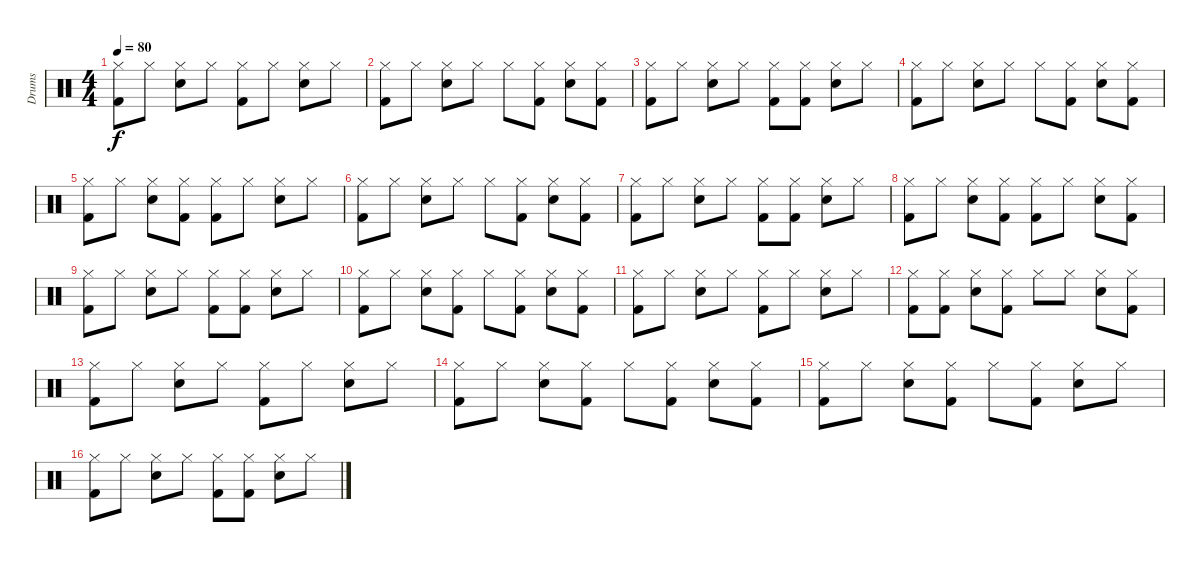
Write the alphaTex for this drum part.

\track ("Drums" "Drums") {instrument percussion}
\staff {score}
\articulation defaults
\ts (4 4)
\tempo 80
\clef neutral
\ks c
("Hi-Hat (closed)" "Kick (hit) 2").8{dy f} "Hi-Hat (closed)".8 ("Hi-Hat (closed)" "Electric Snare (hit)").8 "Hi-Hat (closed)".8 ("Hi-Hat (closed)" "Kick (hit) 2").8 "Hi-Hat (closed)".8 ("Hi-Hat (closed)" "Electric Snare (hit)").8 "Hi-Hat (closed)".8 |
("Hi-Hat (closed)" "Kick (hit) 2").8 "Hi-Hat (closed)".8 ("Hi-Hat (closed)" "Electric Snare (hit)").8 "Hi-Hat (closed)".8 "Hi-Hat (closed)".8 ("Hi-Hat (closed)" "Kick (hit) 2").8 ("Hi-Hat (closed)" "Electric Snare (hit)").8 ("Hi-Hat (closed)" "Kick (hit) 2").8 |
("Hi-Hat (closed)" "Kick (hit) 2").8 "Hi-Hat (closed)".8 ("Hi-Hat (closed)" "Electric Snare (hit)").8 "Hi-Hat (closed)".8 ("Hi-Hat (closed)" "Kick (hit) 2").8 ("Hi-Hat (closed)" "Kick (hit) 2").8 ("Hi-Hat (closed)" "Electric Snare (hit)").8 "Hi-Hat (closed)".8 |
("Hi-Hat (closed)" "Kick (hit) 2").8 "Hi-Hat (closed)".8 ("Hi-Hat (closed)" "Electric Snare (hit)").8 "Hi-Hat (closed)".8 "Hi-Hat (closed)".8 ("Hi-Hat (closed)" "Kick (hit) 2").8 ("Hi-Hat (closed)" "Electric Snare (hit)").8 ("Hi-Hat (closed)" "Kick (hit) 2").8 |
("Hi-Hat (closed)" "Kick (hit) 2").8 "Hi-Hat (closed)".8 ("Hi-Hat (closed)" "Electric Snare (hit)").8 ("Hi-Hat (closed)" "Kick (hit) 2").8 ("Hi-Hat (closed)" "Kick (hit) 2").8 "Hi-Hat (closed)".8 ("Hi-Hat (closed)" "Electric Snare (hit)").8 "Hi-Hat (closed)".8 |
("Hi-Hat (closed)" "Kick (hit) 2").8 "Hi-Hat (closed)".8 ("Hi-Hat (closed)" "Electric Snare (hit)").8 "Hi-Hat (closed)".8 "Hi-Hat (closed)".8 ("Hi-Hat (closed)" "Kick (hit) 2").8 ("Hi-Hat (closed)" "Electric Snare (hit)").8 ("Hi-Hat (closed)" "Kick (hit) 2").8 |
("Hi-Hat (closed)" "Kick (hit) 2").8 "Hi-Hat (closed)".8 ("Hi-Hat (closed)" "Electric Snare (hit)").8 "Hi-Hat (closed)".8 ("Hi-Hat (closed)" "Kick (hit) 2").8 ("Hi-Hat (closed)" "Kick (hit) 2").8 ("Hi-Hat (closed)" "Electric Snare (hit)").8 "Hi-Hat (closed)".8 |
("Hi-Hat (closed)" "Kick (hit) 2").8 "Hi-Hat (closed)".8 ("Hi-Hat (closed)" "Electric Snare (hit)").8 ("Hi-Hat (closed)" "Kick (hit) 2").8 ("Hi-Hat (closed)" "Kick (hit) 2").8 "Hi-Hat (closed)".8 ("Hi-Hat (closed)" "Electric Snare (hit)").8 ("Hi-Hat (closed)" "Kick (hit) 2").8 |
("Hi-Hat (closed)" "Kick (hit) 2").8 "Hi-Hat (closed)".8 ("Hi-Hat (closed)" "Electric Snare (hit)").8 "Hi-Hat (closed)".8 ("Hi-Hat (closed)" "Kick (hit) 2").8 ("Hi-Hat (closed)" "Kick (hit) 2").8 ("Hi-Hat (closed)" "Electric Snare (hit)").8 "Hi-Hat (closed)".8 |
("Hi-Hat (closed)" "Kick (hit) 2").8 "Hi-Hat (closed)".8 ("Hi-Hat (closed)" "Electric Snare (hit)").8 ("Hi-Hat (closed)" "Kick (hit) 2").8 "Hi-Hat (closed)".8 ("Hi-Hat (closed)" "Kick (hit) 2").8 ("Hi-Hat (closed)" "Electric Snare (hit)").8 ("Hi-Hat (closed)" "Kick (hit) 2").8 |
("Hi-Hat (closed)" "Kick (hit) 2").8 "Hi-Hat (closed)".8 ("Hi-Hat (closed)" "Electric Snare (hit)").8 "Hi-Hat (closed)".8 ("Hi-Hat (closed)" "Kick (hit) 2").8 "Hi-Hat (closed)".8 ("Hi-Hat (closed)" "Electric Snare (hit)").8 "Hi-Hat (closed)".8 |
("Hi-Hat (closed)" "Kick (hit) 2").8 ("Hi-Hat (closed)" "Kick (hit) 2").8 ("Hi-Hat (closed)" "Electric Snare (hit)").8 ("Hi-Hat (closed)" "Kick (hit) 2").8 "Hi-Hat (closed)".8 "Hi-Hat (closed)".8 ("Hi-Hat (closed)" "Electric Snare (hit)").8 ("Hi-Hat (closed)" "Kick (hit) 2").8 |
("Hi-Hat (closed)" "Kick (hit) 2").8 "Hi-Hat (closed)".8 ("Hi-Hat (closed)" "Electric Snare (hit)").8 "Hi-Hat (closed)".8 ("Hi-Hat (closed)" "Kick (hit) 2").8 "Hi-Hat (closed)".8 ("Hi-Hat (closed)" "Electric Snare (hit)").8 "Hi-Hat (closed)".8 |
("Hi-Hat (closed)" "Kick (hit) 2").8 "Hi-Hat (closed)".8 ("Hi-Hat (closed)" "Electric Snare (hit)").8 ("Hi-Hat (closed)" "Kick (hit) 2").8 "Hi-Hat (closed)".8 ("Hi-Hat (closed)" "Kick (hit) 2").8 ("Hi-Hat (closed)" "Electric Snare (hit)").8 ("Hi-Hat (closed)" "Kick (hit) 2").8 |
("Hi-Hat (closed)" "Kick (hit) 2").8 "Hi-Hat (closed)".8 ("Hi-Hat (closed)" "Electric Snare (hit)").8 ("Hi-Hat (closed)" "Kick (hit) 2").8 "Hi-Hat (closed)".8 ("Hi-Hat (closed)" "Kick (hit) 2").8 ("Hi-Hat (closed)" "Electric Snare (hit)").8 "Hi-Hat (closed)".8 |
("Hi-Hat (closed)" "Kick (hit) 2").8 "Hi-Hat (closed)".8 ("Hi-Hat (closed)" "Electric Snare (hit)").8 "Hi-Hat (closed)".8 ("Hi-Hat (closed)" "Kick (hit) 2").8 ("Hi-Hat (closed)" "Kick (hit) 2").8 ("Hi-Hat (closed)" "Electric Snare (hit)").8 "Hi-Hat (closed)".8
